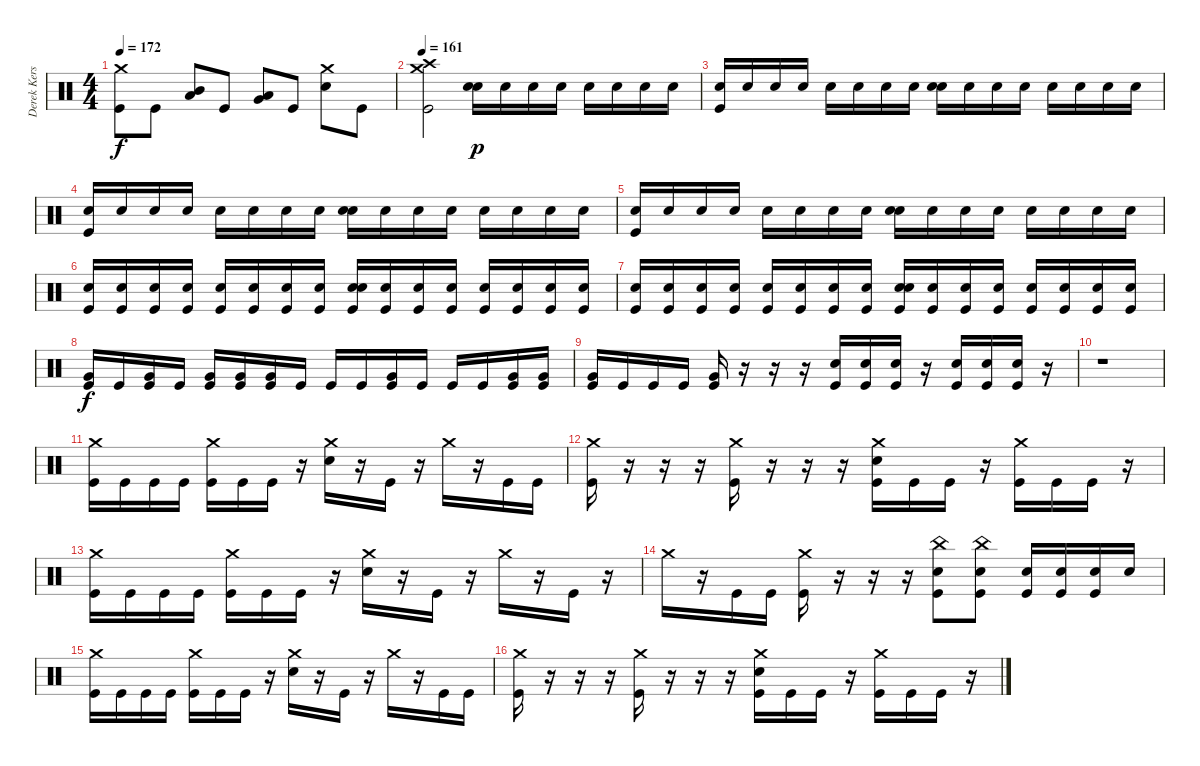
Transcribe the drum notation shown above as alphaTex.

\track ("Derek Kerswill" "Derek Kers") {instrument percussion}
\staff {score}
\articulation defaults
\ts (4 4)
\tempo 172
\clef neutral
\ks c
("Crash medium (hit)" "Kick (hit)").8{dy f} "Kick (hit)".8 ("Mid Tom (hit)" "Low Tom (hit)").8 "Kick (hit)".8 ("Low Tom (hit)" "Very Low Tom (hit)").8 "Kick (hit)".8 ("Crash medium (hit)" "Electric Snare (hit)").8 "Kick (hit)".8 |
\tempo 161
("Crash medium (hit)" "Crash high (hit)" "Kick (hit)").2 ("Electric Snare (hit)" "Electric Snare (hit)").16{dy p} "Electric Snare (hit)".16 "Electric Snare (hit)".16 "Electric Snare (hit)".16 "Electric Snare (hit)".16 "Electric Snare (hit)".16 "Electric Snare (hit)".16 "Electric Snare (hit)".16 |
("Electric Snare (hit)" "Kick (hit)").16 "Electric Snare (hit)".16 "Electric Snare (hit)".16 "Electric Snare (hit)".16 "Electric Snare (hit)".16 "Electric Snare (hit)".16 "Electric Snare (hit)".16 "Electric Snare (hit)".16 ("Electric Snare (hit)" "Electric Snare (hit)").16 "Electric Snare (hit)".16 "Electric Snare (hit)".16 "Electric Snare (hit)".16 "Electric Snare (hit)".16 "Electric Snare (hit)".16 "Electric Snare (hit)".16 "Electric Snare (hit)".16 |
("Electric Snare (hit)" "Kick (hit)").16 "Electric Snare (hit)".16 "Electric Snare (hit)".16 "Electric Snare (hit)".16 "Electric Snare (hit)".16 "Electric Snare (hit)".16 "Electric Snare (hit)".16 "Electric Snare (hit)".16 ("Electric Snare (hit)" "Electric Snare (hit)").16 "Electric Snare (hit)".16 "Electric Snare (hit)".16 "Electric Snare (hit)".16 "Electric Snare (hit)".16 "Electric Snare (hit)".16 "Electric Snare (hit)".16 "Electric Snare (hit)".16 |
("Electric Snare (hit)" "Kick (hit)").16 "Electric Snare (hit)".16 "Electric Snare (hit)".16 "Electric Snare (hit)".16 "Electric Snare (hit)".16 "Electric Snare (hit)".16 "Electric Snare (hit)".16 "Electric Snare (hit)".16 ("Electric Snare (hit)" "Electric Snare (hit)").16 "Electric Snare (hit)".16 "Electric Snare (hit)".16 "Electric Snare (hit)".16 "Electric Snare (hit)".16 "Electric Snare (hit)".16 "Electric Snare (hit)".16 "Electric Snare (hit)".16 |
("Electric Snare (hit)" "Kick (hit)").16 ("Electric Snare (hit)" "Kick (hit)").16 ("Electric Snare (hit)" "Kick (hit)").16 ("Electric Snare (hit)" "Kick (hit)").16 ("Electric Snare (hit)" "Kick (hit)").16 ("Electric Snare (hit)" "Kick (hit)").16 ("Electric Snare (hit)" "Kick (hit)").16 ("Electric Snare (hit)" "Kick (hit)").16 ("Electric Snare (hit)" "Electric Snare (hit)" "Kick (hit)").16 ("Electric Snare (hit)" "Kick (hit)").16 ("Electric Snare (hit)" "Kick (hit)").16 ("Electric Snare (hit)" "Kick (hit)").16 ("Electric Snare (hit)" "Kick (hit)").16 ("Electric Snare (hit)" "Kick (hit)").16 ("Electric Snare (hit)" "Kick (hit)").16 ("Electric Snare (hit)" "Kick (hit)").16 |
("Electric Snare (hit)" "Kick (hit)").16 ("Electric Snare (hit)" "Kick (hit)").16 ("Electric Snare (hit)" "Kick (hit)").16 ("Electric Snare (hit)" "Kick (hit)").16 ("Electric Snare (hit)" "Kick (hit)").16 ("Electric Snare (hit)" "Kick (hit)").16 ("Electric Snare (hit)" "Kick (hit)").16 ("Electric Snare (hit)" "Kick (hit)").16 ("Electric Snare (hit)" "Electric Snare (hit)" "Kick (hit)").16 ("Electric Snare (hit)" "Kick (hit)").16 ("Electric Snare (hit)" "Kick (hit)").16 ("Electric Snare (hit)" "Kick (hit)").16 ("Electric Snare (hit)" "Kick (hit)").16 ("Electric Snare (hit)" "Kick (hit)").16 ("Electric Snare (hit)" "Kick (hit)").16 ("Electric Snare (hit)" "Kick (hit)").16 |
("Very Low Tom (hit)" "Kick (hit)").16{dy f} "Kick (hit)".16 ("Very Low Tom (hit)" "Kick (hit)").16 "Kick (hit)".16 ("Very Low Tom (hit)" "Kick (hit)").16 ("Very Low Tom (hit)" "Kick (hit)").16 ("Very Low Tom (hit)" "Kick (hit)").16 "Kick (hit)".16 "Kick (hit)".16 "Kick (hit)".16 ("Very Low Tom (hit)" "Kick (hit)").16 "Kick (hit)".16 "Kick (hit)".16 "Kick (hit)".16 ("Very Low Tom (hit)" "Kick (hit)").16 ("Very Low Tom (hit)" "Kick (hit)").16 |
("Very Low Tom (hit)" "Kick (hit)").16 "Kick (hit)".16 "Kick (hit)".16 "Kick (hit)".16 ("Very Low Tom (hit)" "Kick (hit)").16 r.16 r.16 r.16 ("Electric Snare (hit)" "Kick (hit)").16 ("Electric Snare (hit)" "Kick (hit)").16 ("Electric Snare (hit)" "Kick (hit)").16 r.16 ("Electric Snare (hit)" "Kick (hit)").16 ("Electric Snare (hit)" "Kick (hit)").16 ("Electric Snare (hit)" "Kick (hit)").16 r.16 |
r.1 |
("Crash medium (hit)" "Kick (hit)").16 "Kick (hit)".16 "Kick (hit)".16 "Kick (hit)".16 ("Crash medium (hit)" "Kick (hit)").16 "Kick (hit)".16 "Kick (hit)".16 r.16 ("Crash medium (hit)" "Electric Snare (hit)").16 r.16 "Kick (hit)".16 r.16 "Crash medium (hit)".16 r.16 "Kick (hit)".16 "Kick (hit)".16 |
("Crash medium (hit)" "Kick (hit)").16 r.16 r.16 r.16 ("Crash medium (hit)" "Kick (hit)").16 r.16 r.16 r.16 ("Crash medium (hit)" "Electric Snare (hit)" "Kick (hit)").16 "Kick (hit)".16 "Kick (hit)".16 r.16 ("Crash medium (hit)" "Kick (hit)").16 "Kick (hit)".16 "Kick (hit)".16 r.16 |
("Crash medium (hit)" "Kick (hit)").16 "Kick (hit)".16 "Kick (hit)".16 "Kick (hit)".16 ("Crash medium (hit)" "Kick (hit)").16 "Kick (hit)".16 "Kick (hit)".16 r.16 ("Crash medium (hit)" "Electric Snare (hit)").16 r.16 "Kick (hit)".16 r.16 "Crash medium (hit)".16 r.16 "Kick (hit)".16 r.16 |
"Crash medium (hit)".16 r.16 "Kick (hit)".16 "Kick (hit)".16 ("Crash medium (hit)" "Kick (hit)").16 r.16 r.16 r.16 ("China (hit)" "Electric Snare (hit)" "Kick (hit)").8 ("China (hit)" "Electric Snare (hit)" "Kick (hit)").8 ("Electric Snare (hit)" "Kick (hit)").16 ("Electric Snare (hit)" "Kick (hit)").16 ("Electric Snare (hit)" "Kick (hit)").16 "Electric Snare (hit)".16 |
("Crash medium (hit)" "Kick (hit)").16 "Kick (hit)".16 "Kick (hit)".16 "Kick (hit)".16 ("Crash medium (hit)" "Kick (hit)").16 "Kick (hit)".16 "Kick (hit)".16 r.16 ("Crash medium (hit)" "Electric Snare (hit)").16 r.16 "Kick (hit)".16 r.16 "Crash medium (hit)".16 r.16 "Kick (hit)".16 "Kick (hit)".16 |
("Crash medium (hit)" "Kick (hit)").16 r.16 r.16 r.16 ("Crash medium (hit)" "Kick (hit)").16 r.16 r.16 r.16 ("Crash medium (hit)" "Electric Snare (hit)" "Kick (hit)").16 "Kick (hit)".16 "Kick (hit)".16 r.16 ("Crash medium (hit)" "Kick (hit)").16 "Kick (hit)".16 "Kick (hit)".16 r.16
